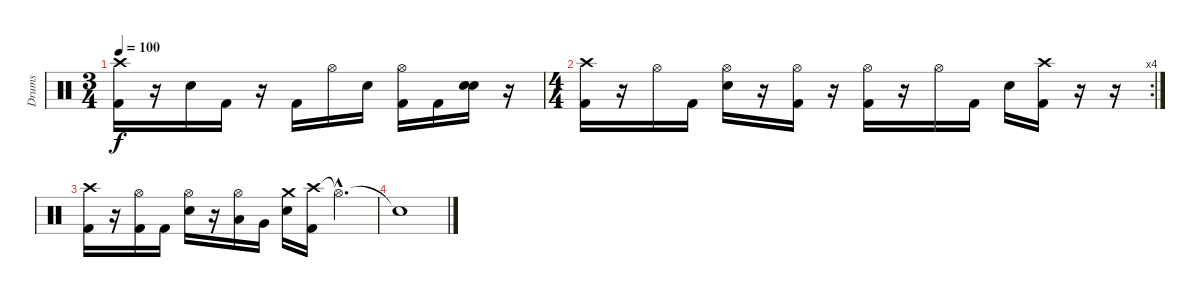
\track ("Drums" "Drums") {instrument percussion}
\staff {score}
\articulation defaults
\ts (3 4)
\tempo 100
\clef neutral
\ks c
("Crash high (hit)" "Kick (hit) 2").16{dy f} r.16 "Snare (hit) 2".16 "Kick (hit) 2".16 r.16 "Kick (hit) 2".16 "Hi-Hat (open)".16 "Snare (hit) 2".16 ("Hi-Hat (open)" "Kick (hit) 2").16 "Kick (hit) 2".16 ("Snare (hit) 2" "Snare (hit) 2").16 r.16 |
\rc 4
\ts (4 4)
("Crash high (hit)" "Kick (hit) 2").16 r.16 "Hi-Hat (open)".16 "Kick (hit) 2".16 ("Hi-Hat (open)" "Snare (hit) 2").16 r.16 ("Hi-Hat (open)" "Kick (hit) 2").16 r.16 ("Hi-Hat (open)" "Kick (hit) 2").16 r.16 "Hi-Hat (open)".16 "Kick (hit) 2".16 "Snare (hit) 2".16 ("Crash high (hit)" "Kick (hit) 2").16 r.16 r.16 |
("Crash high (hit)" "Kick (hit) 2").16 r.16 ("Hi-Hat (open)" "Kick (hit) 2").16 "Kick (hit) 2".16 ("Hi-Hat (open)" "Snare (hit) 2").16 r.16 ("Hi-Hat (open)" "Low Tom (hit)").16 "Very Low Tom (hit)".16 ("Crash medium (hit)" "Snare (hit) 2").16 ("Crash high (hit)" "Kick (hit) 2").16 "Hi-Hat (open)"{hac t}.4{d} |
"Snare (hit)"{t}.1
